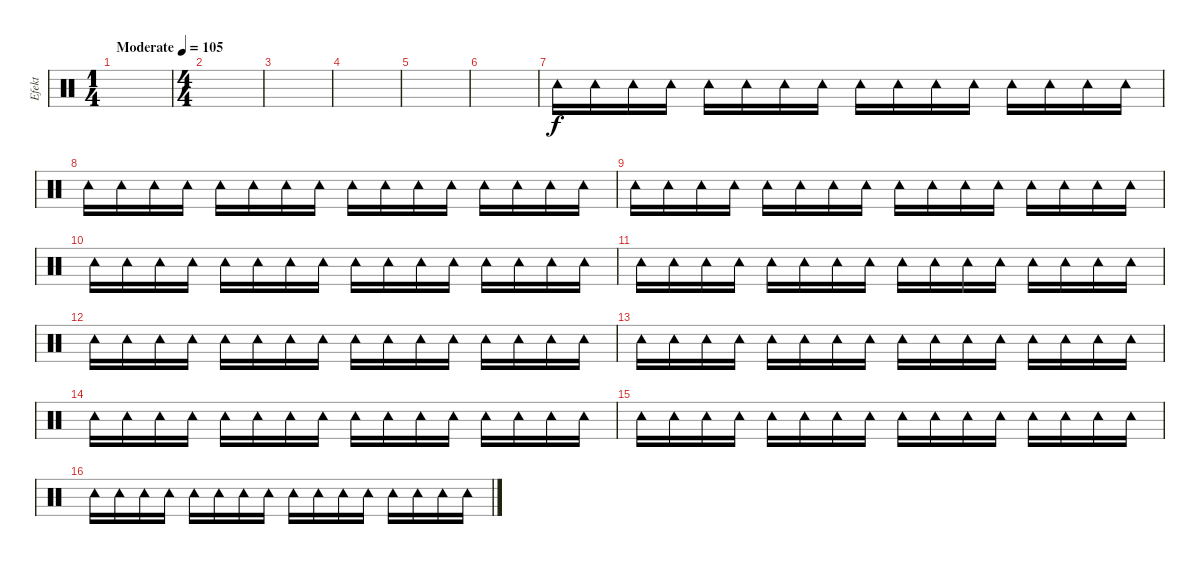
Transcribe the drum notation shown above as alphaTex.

\track ("Efekt" "Efekt") {instrument percussion}
\staff {score}
\articulation defaults
\ts (1 4)
\tempo (105 "Moderate")
\clef neutral
\ks c
|
\ts (4 4)
|
|
|
|
|
"Tambourine (hit)".16 "Tambourine (hit)".16 "Tambourine (hit)".16 "Tambourine (hit)".16 "Tambourine (hit)".16 "Tambourine (hit)".16 "Tambourine (hit)".16 "Tambourine (hit)".16 "Tambourine (hit)".16 "Tambourine (hit)".16 "Tambourine (hit)".16 "Tambourine (hit)".16 "Tambourine (hit)".16 "Tambourine (hit)".16 "Tambourine (hit)".16 "Tambourine (hit)".16 |
"Tambourine (hit)".16 "Tambourine (hit)".16 "Tambourine (hit)".16 "Tambourine (hit)".16 "Tambourine (hit)".16 "Tambourine (hit)".16 "Tambourine (hit)".16 "Tambourine (hit)".16 "Tambourine (hit)".16 "Tambourine (hit)".16 "Tambourine (hit)".16 "Tambourine (hit)".16 "Tambourine (hit)".16 "Tambourine (hit)".16 "Tambourine (hit)".16 "Tambourine (hit)".16 |
"Tambourine (hit)".16 "Tambourine (hit)".16 "Tambourine (hit)".16 "Tambourine (hit)".16 "Tambourine (hit)".16 "Tambourine (hit)".16 "Tambourine (hit)".16 "Tambourine (hit)".16 "Tambourine (hit)".16 "Tambourine (hit)".16 "Tambourine (hit)".16 "Tambourine (hit)".16 "Tambourine (hit)".16 "Tambourine (hit)".16 "Tambourine (hit)".16 "Tambourine (hit)".16 |
"Tambourine (hit)".16 "Tambourine (hit)".16 "Tambourine (hit)".16 "Tambourine (hit)".16 "Tambourine (hit)".16 "Tambourine (hit)".16 "Tambourine (hit)".16 "Tambourine (hit)".16 "Tambourine (hit)".16 "Tambourine (hit)".16 "Tambourine (hit)".16 "Tambourine (hit)".16 "Tambourine (hit)".16 "Tambourine (hit)".16 "Tambourine (hit)".16 "Tambourine (hit)".16 |
"Tambourine (hit)".16 "Tambourine (hit)".16 "Tambourine (hit)".16 "Tambourine (hit)".16 "Tambourine (hit)".16 "Tambourine (hit)".16 "Tambourine (hit)".16 "Tambourine (hit)".16 "Tambourine (hit)".16 "Tambourine (hit)".16 "Tambourine (hit)".16 "Tambourine (hit)".16 "Tambourine (hit)".16 "Tambourine (hit)".16 "Tambourine (hit)".16 "Tambourine (hit)".16 |
"Tambourine (hit)".16 "Tambourine (hit)".16 "Tambourine (hit)".16 "Tambourine (hit)".16 "Tambourine (hit)".16 "Tambourine (hit)".16 "Tambourine (hit)".16 "Tambourine (hit)".16 "Tambourine (hit)".16 "Tambourine (hit)".16 "Tambourine (hit)".16 "Tambourine (hit)".16 "Tambourine (hit)".16 "Tambourine (hit)".16 "Tambourine (hit)".16 "Tambourine (hit)".16 |
"Tambourine (hit)".16 "Tambourine (hit)".16 "Tambourine (hit)".16 "Tambourine (hit)".16 "Tambourine (hit)".16 "Tambourine (hit)".16 "Tambourine (hit)".16 "Tambourine (hit)".16 "Tambourine (hit)".16 "Tambourine (hit)".16 "Tambourine (hit)".16 "Tambourine (hit)".16 "Tambourine (hit)".16 "Tambourine (hit)".16 "Tambourine (hit)".16 "Tambourine (hit)".16 |
"Tambourine (hit)".16 "Tambourine (hit)".16 "Tambourine (hit)".16 "Tambourine (hit)".16 "Tambourine (hit)".16 "Tambourine (hit)".16 "Tambourine (hit)".16 "Tambourine (hit)".16 "Tambourine (hit)".16 "Tambourine (hit)".16 "Tambourine (hit)".16 "Tambourine (hit)".16 "Tambourine (hit)".16 "Tambourine (hit)".16 "Tambourine (hit)".16 "Tambourine (hit)".16 |
"Tambourine (hit)".16 "Tambourine (hit)".16 "Tambourine (hit)".16 "Tambourine (hit)".16 "Tambourine (hit)".16 "Tambourine (hit)".16 "Tambourine (hit)".16 "Tambourine (hit)".16 "Tambourine (hit)".16 "Tambourine (hit)".16 "Tambourine (hit)".16 "Tambourine (hit)".16 "Tambourine (hit)".16 "Tambourine (hit)".16 "Tambourine (hit)".16 "Tambourine (hit)".16 |
"Tambourine (hit)".16 "Tambourine (hit)".16 "Tambourine (hit)".16 "Tambourine (hit)".16 "Tambourine (hit)".16 "Tambourine (hit)".16 "Tambourine (hit)".16 "Tambourine (hit)".16 "Tambourine (hit)".16 "Tambourine (hit)".16 "Tambourine (hit)".16 "Tambourine (hit)".16 "Tambourine (hit)".16 "Tambourine (hit)".16 "Tambourine (hit)".16 "Tambourine (hit)".16
